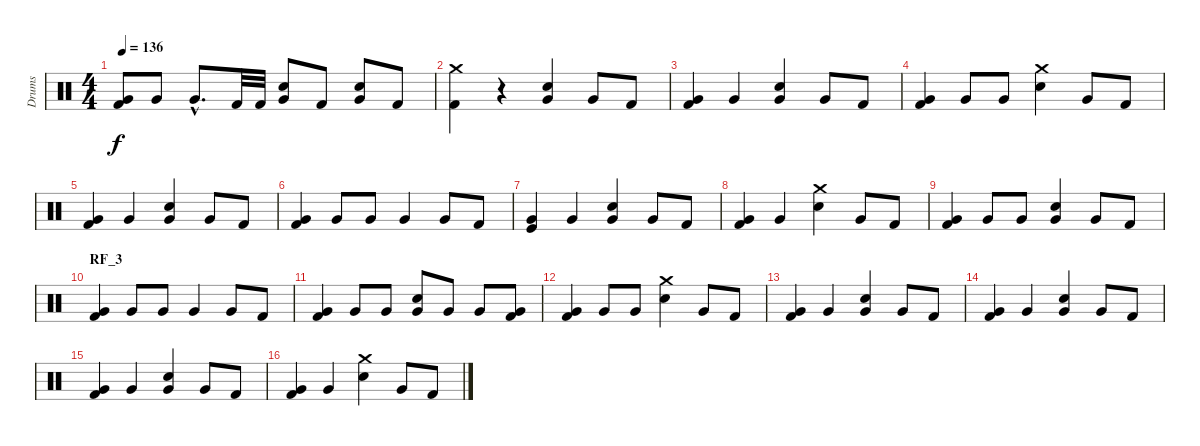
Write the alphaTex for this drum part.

\track ("Drums" "Drums") {instrument percussion}
\staff {score}
\articulation defaults
\ts (4 4)
\tempo 136
\clef neutral
\ks c
("Kick (hit) 2" "Very Low Tom (hit)").8{dy f} "Very Low Tom (hit)".8 "Very Low Tom (hit)"{hac}.8{d} "Kick (hit) 2".32 "Kick (hit) 2".32 ("Very Low Tom (hit)" "Snare (hit) 2").8 "Kick (hit) 2".8 ("Snare (hit) 2" "Very Low Tom (hit)").8 "Kick (hit) 2".8 |
("Kick (hit) 2" "Crash medium (hit)").4 r.4 ("Snare (hit) 2" "Very Low Tom (hit)").4 "Very Low Tom (hit)".8 "Kick (hit) 2".8 |
("Kick (hit) 2" "Very Low Tom (hit)").4 "Very Low Tom (hit)".4 ("Snare (hit) 2" "Very Low Tom (hit)").4 "Very Low Tom (hit)".8 "Kick (hit) 2".8 |
("Kick (hit) 2" "Very Low Tom (hit)").4 "Very Low Tom (hit)".8 "Very Low Tom (hit)".8 ("Crash medium (hit)" "Snare (hit) 2").4 "Very Low Tom (hit)".8 "Kick (hit) 2".8 |
("Kick (hit) 2" "Very Low Tom (hit)").4 "Very Low Tom (hit)".4 ("Snare (hit) 2" "Very Low Tom (hit)").4 "Very Low Tom (hit)".8 "Kick (hit) 2".8 |
("Very Low Tom (hit)" "Kick (hit) 2").4 "Very Low Tom (hit)".8 "Very Low Tom (hit)".8 "Very Low Tom (hit)".4 "Very Low Tom (hit)".8 "Kick (hit) 2".8 |
("Kick (hit)" "Very Low Tom (hit)").4 "Very Low Tom (hit)".4 ("Snare (hit) 2" "Very Low Tom (hit)").4 "Very Low Tom (hit)".8 "Kick (hit) 2".8 |
("Kick (hit) 2" "Very Low Tom (hit)").4 "Very Low Tom (hit)".4 ("Crash medium (hit)" "Snare (hit) 2").4 "Very Low Tom (hit)".8 "Kick (hit) 2".8 |
("Kick (hit) 2" "Very Low Tom (hit)").4 "Very Low Tom (hit)".8 "Very Low Tom (hit)".8 ("Snare (hit) 2" "Very Low Tom (hit)").4 "Very Low Tom (hit)".8 "Kick (hit) 2".8 |
\section ("" "RF_3")
("Very Low Tom (hit)" "Kick (hit) 2").4 "Very Low Tom (hit)".8 "Very Low Tom (hit)".8 "Very Low Tom (hit)".4 "Very Low Tom (hit)".8 "Kick (hit) 2".8 |
("Very Low Tom (hit)" "Kick (hit) 2").4 "Very Low Tom (hit)".8 "Very Low Tom (hit)".8 ("Snare (hit) 2" "Very Low Tom (hit)").8 "Very Low Tom (hit)".8 "Very Low Tom (hit)".8 ("Kick (hit) 2" "Very Low Tom (hit)").8 |
("Kick (hit) 2" "Very Low Tom (hit)").4 "Very Low Tom (hit)".8 "Very Low Tom (hit)".8 ("Crash medium (hit)" "Snare (hit) 2").4 "Very Low Tom (hit)".8 "Kick (hit) 2".8 |
("Kick (hit) 2" "Very Low Tom (hit)").4 "Very Low Tom (hit)".4 ("Snare (hit) 2" "Very Low Tom (hit)").4 "Very Low Tom (hit)".8 "Kick (hit) 2".8 |
("Kick (hit) 2" "Very Low Tom (hit)").4 "Very Low Tom (hit)".4 ("Snare (hit) 2" "Very Low Tom (hit)").4 "Very Low Tom (hit)".8 "Kick (hit) 2".8 |
("Kick (hit) 2" "Very Low Tom (hit)").4 "Very Low Tom (hit)".4 ("Snare (hit) 2" "Very Low Tom (hit)").4 "Very Low Tom (hit)".8 "Kick (hit) 2".8 |
("Kick (hit) 2" "Very Low Tom (hit)").4 "Very Low Tom (hit)".4 ("Crash medium (hit)" "Snare (hit) 2").4 "Very Low Tom (hit)".8 "Kick (hit) 2".8
